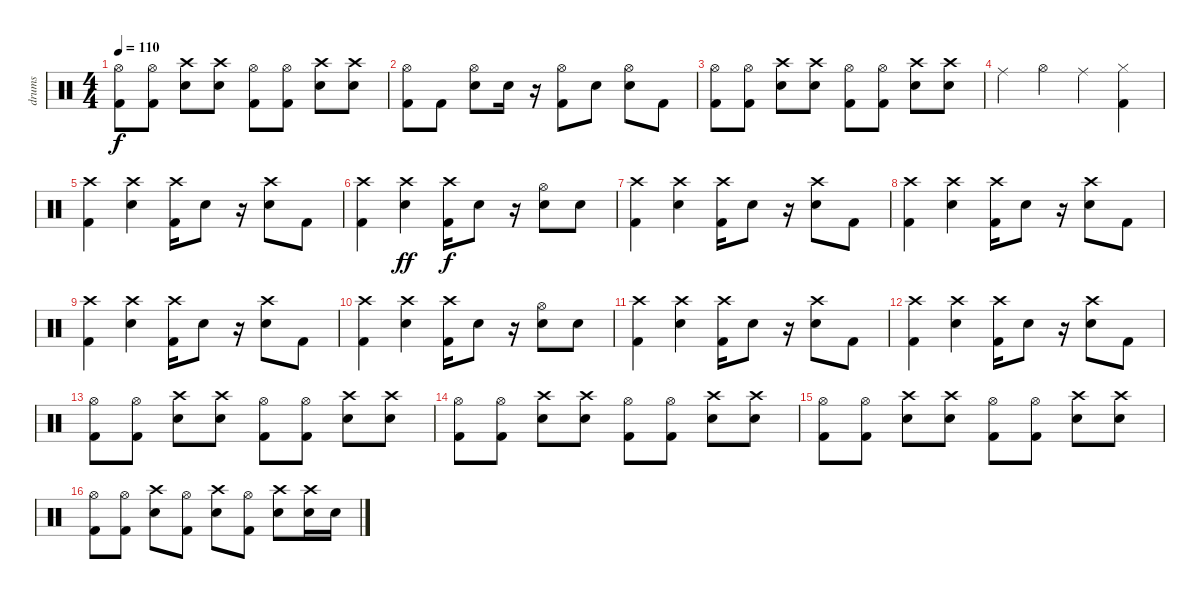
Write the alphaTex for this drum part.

\track ("drums" "drums") {instrument percussion}
\staff {score}
\articulation defaults
\ts (4 4)
\tempo 110
\clef neutral
\ks c
("Hi-Hat (open)" "Kick (hit) 2").8{dy f} ("Hi-Hat (open)" "Kick (hit) 2").8 ("Crash high (hit)" "Snare (hit) 2").8 ("Crash high (hit)" "Snare (hit) 2").8 ("Hi-Hat (open)" "Kick (hit) 2").8 ("Hi-Hat (open)" "Kick (hit) 2").8 ("Crash high (hit)" "Snare (hit) 2").8 ("Crash high (hit)" "Snare (hit) 2").8 |
("Hi-Hat (open)" "Kick (hit) 2").8 "Kick (hit) 2".8 ("Hi-Hat (open)" "Snare (hit) 2").8 "Snare (hit) 2".16 r.16 ("Hi-Hat (open)" "Kick (hit) 2").8 "Snare (hit) 2".8 ("Hi-Hat (open)" "Snare (hit) 2").8 "Kick (hit) 2".8 |
("Hi-Hat (open)" "Kick (hit) 2").8 ("Hi-Hat (open)" "Kick (hit) 2").8 ("Crash high (hit)" "Snare (hit) 2").8 ("Crash high (hit)" "Snare (hit) 2").8 ("Hi-Hat (open)" "Kick (hit) 2").8 ("Hi-Hat (open)" "Kick (hit) 2").8 ("Crash high (hit)" "Snare (hit) 2").8 ("Crash high (hit)" "Snare (hit) 2").8 |
"Ride (middle)".4 "Hi-Hat (open)".4 "Ride (middle)".4 ("Hi-Hat (closed)" "Kick (hit) 2").4 |
("Crash high (hit)" "Kick (hit) 2").4 ("Crash high (hit)" "Snare (hit) 2").4 ("Crash high (hit)" "Kick (hit) 2").16 "Snare (hit) 2".8 r.16 ("Crash high (hit)" "Snare (hit) 2").8 "Kick (hit) 2".8 |
("Crash high (hit)" "Kick (hit) 2").4 ("Crash high (hit)" "Snare (hit) 2").4{dy ff} ("Crash high (hit)" "Kick (hit) 2").16{dy f} "Snare (hit) 2".8 r.16 ("Hi-Hat (open)" "Snare (hit) 2").8 "Snare (hit) 2".8 |
("Crash high (hit)" "Kick (hit) 2").4 ("Crash high (hit)" "Snare (hit) 2").4 ("Crash high (hit)" "Kick (hit) 2").16 "Snare (hit) 2".8 r.16 ("Crash high (hit)" "Snare (hit) 2").8 "Kick (hit) 2".8 |
("Crash high (hit)" "Kick (hit) 2").4 ("Crash high (hit)" "Snare (hit) 2").4 ("Crash high (hit)" "Kick (hit) 2").16 "Snare (hit) 2".8 r.16 ("Crash high (hit)" "Snare (hit) 2").8 "Kick (hit) 2".8 |
("Crash high (hit)" "Kick (hit) 2").4 ("Crash high (hit)" "Snare (hit) 2").4 ("Crash high (hit)" "Kick (hit) 2").16 "Snare (hit) 2".8 r.16 ("Crash high (hit)" "Snare (hit) 2").8 "Kick (hit) 2".8 |
("Crash high (hit)" "Kick (hit) 2").4 ("Crash high (hit)" "Snare (hit) 2").4 ("Crash high (hit)" "Kick (hit) 2").16 "Snare (hit) 2".8 r.16 ("Hi-Hat (open)" "Snare (hit) 2").8 "Snare (hit) 2".8 |
("Crash high (hit)" "Kick (hit) 2").4 ("Crash high (hit)" "Snare (hit) 2").4 ("Crash high (hit)" "Kick (hit) 2").16 "Snare (hit) 2".8 r.16 ("Crash high (hit)" "Snare (hit) 2").8 "Kick (hit) 2".8 |
("Crash high (hit)" "Kick (hit) 2").4 ("Crash high (hit)" "Snare (hit) 2").4 ("Crash high (hit)" "Kick (hit) 2").16 "Snare (hit) 2".8 r.16 ("Crash high (hit)" "Snare (hit) 2").8 "Kick (hit) 2".8 |
("Hi-Hat (open)" "Kick (hit) 2").8 ("Hi-Hat (open)" "Kick (hit) 2").8 ("Crash high (hit)" "Snare (hit) 2").8 ("Crash high (hit)" "Snare (hit) 2").8 ("Hi-Hat (open)" "Kick (hit) 2").8 ("Hi-Hat (open)" "Kick (hit) 2").8 ("Crash high (hit)" "Snare (hit) 2").8 ("Crash high (hit)" "Snare (hit) 2").8 |
("Hi-Hat (open)" "Kick (hit) 2").8 ("Hi-Hat (open)" "Kick (hit) 2").8 ("Crash high (hit)" "Snare (hit) 2").8 ("Crash high (hit)" "Snare (hit) 2").8 ("Hi-Hat (open)" "Kick (hit) 2").8 ("Hi-Hat (open)" "Kick (hit) 2").8 ("Crash high (hit)" "Snare (hit) 2").8 ("Crash high (hit)" "Snare (hit) 2").8 |
("Hi-Hat (open)" "Kick (hit) 2").8 ("Hi-Hat (open)" "Kick (hit) 2").8 ("Crash high (hit)" "Snare (hit) 2").8 ("Crash high (hit)" "Snare (hit) 2").8 ("Hi-Hat (open)" "Kick (hit) 2").8 ("Hi-Hat (open)" "Kick (hit) 2").8 ("Crash high (hit)" "Snare (hit) 2").8 ("Crash high (hit)" "Snare (hit) 2").8 |
("Hi-Hat (open)" "Kick (hit) 2").8 ("Hi-Hat (open)" "Kick (hit) 2").8 ("Crash high (hit)" "Snare (hit) 2").8 ("Hi-Hat (open)" "Kick (hit) 2").8 ("Crash high (hit)" "Snare (hit) 2").8 ("Hi-Hat (open)" "Kick (hit) 2").8 ("Crash high (hit)" "Snare (hit) 2").8 ("Crash high (hit)" "Snare (hit) 2").16 "Snare (hit) 2".16
